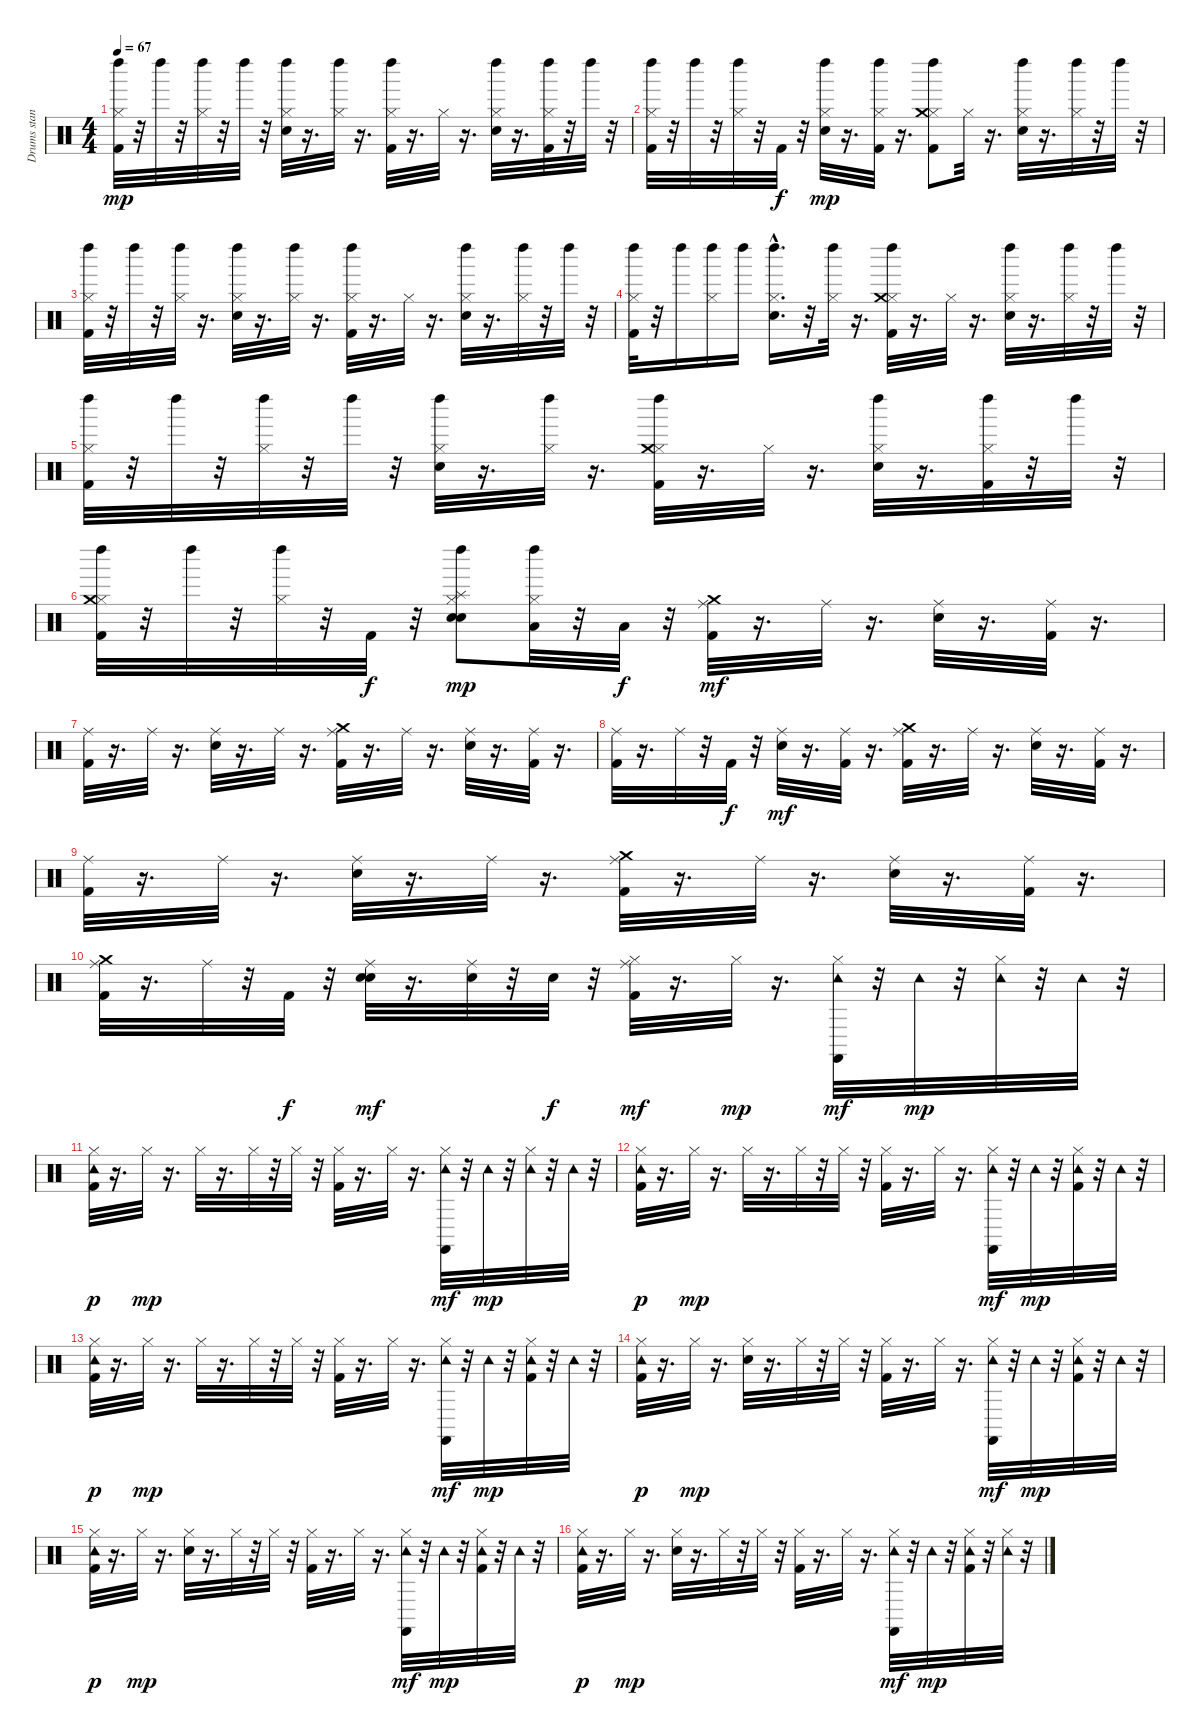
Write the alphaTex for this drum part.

\track ("Drums stand. 1 ard" "Drums stan") {instrument percussion}
\staff {score}
\articulation defaults
\ts (4 4)
\tempo 67
\clef neutral
\ks c
("Hi-Hat (closed)" "Kick (hit) 2" "Left Maraca (hit)").32{dy mp} r.32 "Left Maraca (hit)".32 r.32 ("Hi-Hat (closed)" "Left Maraca (hit)").32 r.32 "Left Maraca (hit)".32 r.32 ("Hi-Hat (closed)" "Electric Snare (hit)" "Left Maraca (hit)").32 r.16{d} ("Hi-Hat (closed)" "Left Maraca (hit)").32 r.16{d} ("Hi-Hat (closed)" "Kick (hit) 2" "Left Maraca (hit)").32 r.16{d} "Hi-Hat (closed)".32 r.16{d} ("Hi-Hat (closed)" "Electric Snare (hit)" "Left Maraca (hit)").32 r.16{d} ("Hi-Hat (closed)" "Kick (hit) 2" "Left Maraca (hit)").32 r.32 "Left Maraca (hit)".32 r.32 |
("Hi-Hat (closed)" "Kick (hit) 2" "Left Maraca (hit)").32 r.32 "Left Maraca (hit)".32 r.32 ("Hi-Hat (closed)" "Left Maraca (hit)").32 r.32 "Kick (hit) 2".32{dy f} r.32 ("Hi-Hat (closed)" "Electric Snare (hit)" "Left Maraca (hit)").32{dy mp} r.16{d} ("Hi-Hat (closed)" "Kick (hit) 2" "Left Maraca (hit)").32 r.16{d} ("Hi-Hat (closed)" "Kick (hit) 2" "Crash medium (hit)" "Left Maraca (hit)").8 "Hi-Hat (closed)".32 r.16{d} ("Hi-Hat (closed)" "Electric Snare (hit)" "Left Maraca (hit)").32 r.16{d} ("Hi-Hat (closed)" "Left Maraca (hit)").32 r.32 "Left Maraca (hit)".32 r.32 |
("Hi-Hat (closed)" "Kick (hit) 2" "Left Maraca (hit)").32 r.32 "Left Maraca (hit)".32 r.32 ("Hi-Hat (closed)" "Left Maraca (hit)").32 r.16{d} ("Hi-Hat (closed)" "Electric Snare (hit)" "Left Maraca (hit)").32 r.16{d} ("Hi-Hat (closed)" "Left Maraca (hit)").32 r.16{d} ("Hi-Hat (closed)" "Kick (hit) 2" "Left Maraca (hit)").32 r.16{d} "Hi-Hat (closed)".32 r.16{d} ("Hi-Hat (closed)" "Electric Snare (hit)" "Left Maraca (hit)").32 r.16{d} ("Hi-Hat (closed)" "Left Maraca (hit)").32 r.32 "Left Maraca (hit)".32 r.32 |
("Hi-Hat (closed)" "Kick (hit) 2" "Left Maraca (hit)").32 r.32 "Left Maraca (hit)".16 ("Hi-Hat (closed)" "Left Maraca (hit)").16 "Left Maraca (hit)".16 ("Hi-Hat (closed)" "Electric Snare (hit)" "Left Maraca (hit)"{hac}).16{d} r.32 ("Hi-Hat (closed)" "Left Maraca (hit)").32 r.16{d} ("Hi-Hat (closed)" "Kick (hit) 2" "Crash medium (hit)" "Left Maraca (hit)").32 r.16{d} "Hi-Hat (closed)".32 r.16{d} ("Hi-Hat (closed)" "Electric Snare (hit)" "Left Maraca (hit)").32 r.16{d} ("Hi-Hat (closed)" "Left Maraca (hit)").32 r.32 "Left Maraca (hit)".32 r.32 |
("Hi-Hat (closed)" "Kick (hit) 2" "Left Maraca (hit)").32 r.32 "Left Maraca (hit)".32 r.32 ("Hi-Hat (closed)" "Left Maraca (hit)").32 r.32 "Left Maraca (hit)".32 r.32 ("Hi-Hat (closed)" "Electric Snare (hit)" "Left Maraca (hit)").32 r.16{d} ("Hi-Hat (closed)" "Left Maraca (hit)").32 r.16{d} ("Hi-Hat (closed)" "Kick (hit) 2" "Crash medium (hit)" "Left Maraca (hit)").32 r.16{d} "Hi-Hat (closed)".32 r.16{d} ("Hi-Hat (closed)" "Electric Snare (hit)" "Left Maraca (hit)").32 r.16{d} ("Hi-Hat (closed)" "Kick (hit) 2" "Left Maraca (hit)").32 r.32 "Left Maraca (hit)".32 r.32 |
("Hi-Hat (closed)" "Kick (hit) 2" "Crash medium (hit)" "Left Maraca (hit)").32 r.32 "Left Maraca (hit)".32 r.32 ("Hi-Hat (closed)" "Left Maraca (hit)").32 r.32 "Kick (hit) 2".32{dy f} r.32 ("Electric Snare (hit)" "Hi-Hat (closed)" "Electric Snare (hit)" "Splash (hit)" "Left Maraca (hit)").8{dy mp} ("Hi-Hat (closed)" "Low Tom (hit)" "Left Maraca (hit)").32 r.32 "Low Floor Tom (hit)".32{dy f} r.32 ("Kick (hit) 2" "Ride (middle)" "Crash medium (hit)").32{dy mf} r.16{d} "Ride (middle)".32 r.16{d} ("Electric Snare (hit)" "Ride (middle)").32 r.16{d} ("Kick (hit) 2" "Ride (middle)").32 r.16{d} |
("Kick (hit) 2" "Ride (middle)").32 r.16{d} "Ride (middle)".32 r.16{d} ("Electric Snare (hit)" "Ride (middle)").32 r.16{d} "Ride (middle)".32 r.16{d} ("Kick (hit) 2" "Ride (middle)" "Crash medium (hit)").32 r.16{d} "Ride (middle)".32 r.16{d} ("Electric Snare (hit)" "Ride (middle)").32 r.16{d} ("Kick (hit) 2" "Ride (middle)").32 r.16{d} |
("Kick (hit) 2" "Ride (middle)").32 r.16{d} "Ride (middle)".32 r.32 "Kick (hit) 2".32{dy f} r.32 ("Electric Snare (hit)" "Ride (middle)").32{dy mf} r.16{d} ("Kick (hit) 2" "Ride (middle)").32 r.16{d} ("Kick (hit) 2" "Ride (middle)" "Crash medium (hit)").32 r.16{d} "Ride (middle)".32 r.16{d} ("Electric Snare (hit)" "Ride (middle)").32 r.16{d} ("Kick (hit) 2" "Ride (middle)").32 r.16{d} |
("Kick (hit) 2" "Ride (middle)").32 r.16{d} "Ride (middle)".32 r.16{d} ("Electric Snare (hit)" "Ride (middle)").32 r.16{d} "Ride (middle)".32 r.16{d} ("Kick (hit) 2" "Ride (middle)" "Crash medium (hit)").32 r.16{d} "Ride (middle)".32 r.16{d} ("Electric Snare (hit)" "Ride (middle)").32 r.16{d} ("Kick (hit) 2" "Ride (middle)").32 r.16{d} |
("Kick (hit) 2" "Ride (middle)" "Crash medium (hit)").32 r.16{d} "Ride (middle)".32 r.32 "Kick (hit) 2".32{dy f} r.32 ("Electric Snare (hit)" "Electric Snare (hit)" "Ride (middle)").32{dy mf} r.16{d} ("Electric Snare (hit)" "Ride (middle)").32 r.32 "Electric Snare (hit)".32{dy f} r.32 ("Kick (hit) 2" "Hi-Hat (closed)" "Ride (middle)").32{dy mf} r.16{d} "Hi-Hat (closed)".32{dy mp} r.16{d} ("Castanets (hit)" "Hi-Hat (closed)" "Tambourine (hit)").32{dy mf} r.32 "Tambourine (hit)".32{dy mp} r.32 ("Hi-Hat (closed)" "Tambourine (hit)").32 r.32 "Tambourine (hit)".32 r.32 |
("Kick (hit) 2" "Hi-Hat (closed)" "Tambourine (hit)").32{dy p} r.16{d} "Hi-Hat (closed)".32{dy mp} r.16{d} "Hi-Hat (closed)".32 r.16{d} "Hi-Hat (closed)".32 r.32 "Hi-Hat (closed)".32 r.32 ("Kick (hit) 2" "Hi-Hat (closed)").32 r.16{d} "Hi-Hat (closed)".32 r.16{d} ("Castanets (hit)" "Hi-Hat (closed)" "Tambourine (hit)").32{dy mf} r.32 "Tambourine (hit)".32{dy mp} r.32 ("Hi-Hat (closed)" "Tambourine (hit)").32 r.32 "Tambourine (hit)".32 r.32 |
("Kick (hit) 2" "Hi-Hat (closed)" "Tambourine (hit)").32{dy p} r.16{d} "Hi-Hat (closed)".32{dy mp} r.16{d} "Hi-Hat (closed)".32 r.16{d} "Hi-Hat (closed)".32 r.32 "Hi-Hat (closed)".32 r.32 ("Kick (hit) 2" "Hi-Hat (closed)").32 r.16{d} "Hi-Hat (closed)".32 r.16{d} ("Castanets (hit)" "Hi-Hat (closed)" "Tambourine (hit)").32{dy mf} r.32 "Tambourine (hit)".32{dy mp} r.32 ("Kick (hit) 2" "Hi-Hat (closed)" "Tambourine (hit)").32 r.32 "Tambourine (hit)".32 r.32 |
("Kick (hit) 2" "Hi-Hat (closed)" "Tambourine (hit)").32{dy p} r.16{d} "Hi-Hat (closed)".32{dy mp} r.16{d} "Hi-Hat (closed)".32 r.16{d} "Hi-Hat (closed)".32 r.32 "Hi-Hat (closed)".32 r.32 ("Kick (hit) 2" "Hi-Hat (closed)").32 r.16{d} "Hi-Hat (closed)".32 r.16{d} ("Hi-Hat (closed)" "Tambourine (hit)" "Castanets (hit)").32{dy mf} r.32 "Tambourine (hit)".32{dy mp} r.32 ("Kick (hit) 2" "Hi-Hat (closed)" "Tambourine (hit)").32 r.32 "Tambourine (hit)".32 r.32 |
("Kick (hit) 2" "Hi-Hat (closed)" "Tambourine (hit)").32{dy p} r.16{d} "Hi-Hat (closed)".32{dy mp} r.16{d} ("Electric Snare (hit)" "Hi-Hat (closed)").32 r.16{d} "Hi-Hat (closed)".32 r.32 "Hi-Hat (closed)".32 r.32 ("Kick (hit) 2" "Hi-Hat (closed)").32 r.16{d} "Hi-Hat (closed)".32 r.16{d} ("Hi-Hat (closed)" "Tambourine (hit)" "Castanets (hit)").32{dy mf} r.32 "Tambourine (hit)".32{dy mp} r.32 ("Kick (hit) 2" "Hi-Hat (closed)" "Tambourine (hit)").32 r.32 "Tambourine (hit)".32 r.32 |
("Kick (hit) 2" "Hi-Hat (closed)" "Tambourine (hit)").32{dy p} r.16{d} "Hi-Hat (closed)".32{dy mp} r.16{d} ("Electric Snare (hit)" "Hi-Hat (closed)").32 r.16{d} "Hi-Hat (closed)".32 r.32 "Hi-Hat (closed)".32 r.32 ("Kick (hit) 2" "Hi-Hat (closed)").32 r.16{d} "Hi-Hat (closed)".32 r.16{d} ("Hi-Hat (closed)" "Tambourine (hit)" "Castanets (hit)").32{dy mf} r.32 "Tambourine (hit)".32{dy mp} r.32 ("Kick (hit) 2" "Hi-Hat (closed)" "Tambourine (hit)").32 r.32 "Tambourine (hit)".32 r.32 |
("Kick (hit) 2" "Hi-Hat (closed)" "Tambourine (hit)").32{dy p} r.16{d} "Hi-Hat (closed)".32{dy mp} r.16{d} ("Electric Snare (hit)" "Hi-Hat (closed)").32 r.16{d} "Hi-Hat (closed)".32 r.32 "Hi-Hat (closed)".32 r.32 ("Kick (hit) 2" "Hi-Hat (closed)").32 r.16{d} "Hi-Hat (closed)".32 r.16{d} ("Hi-Hat (closed)" "Tambourine (hit)" "Castanets (hit)").32{dy mf} r.32 "Tambourine (hit)".32{dy mp} r.32 ("Kick (hit) 2" "Tambourine (hit)" "Hi-Hat (closed)").32 r.32 ("Tambourine (hit)" "Hi-Hat (closed)").32 r.32
